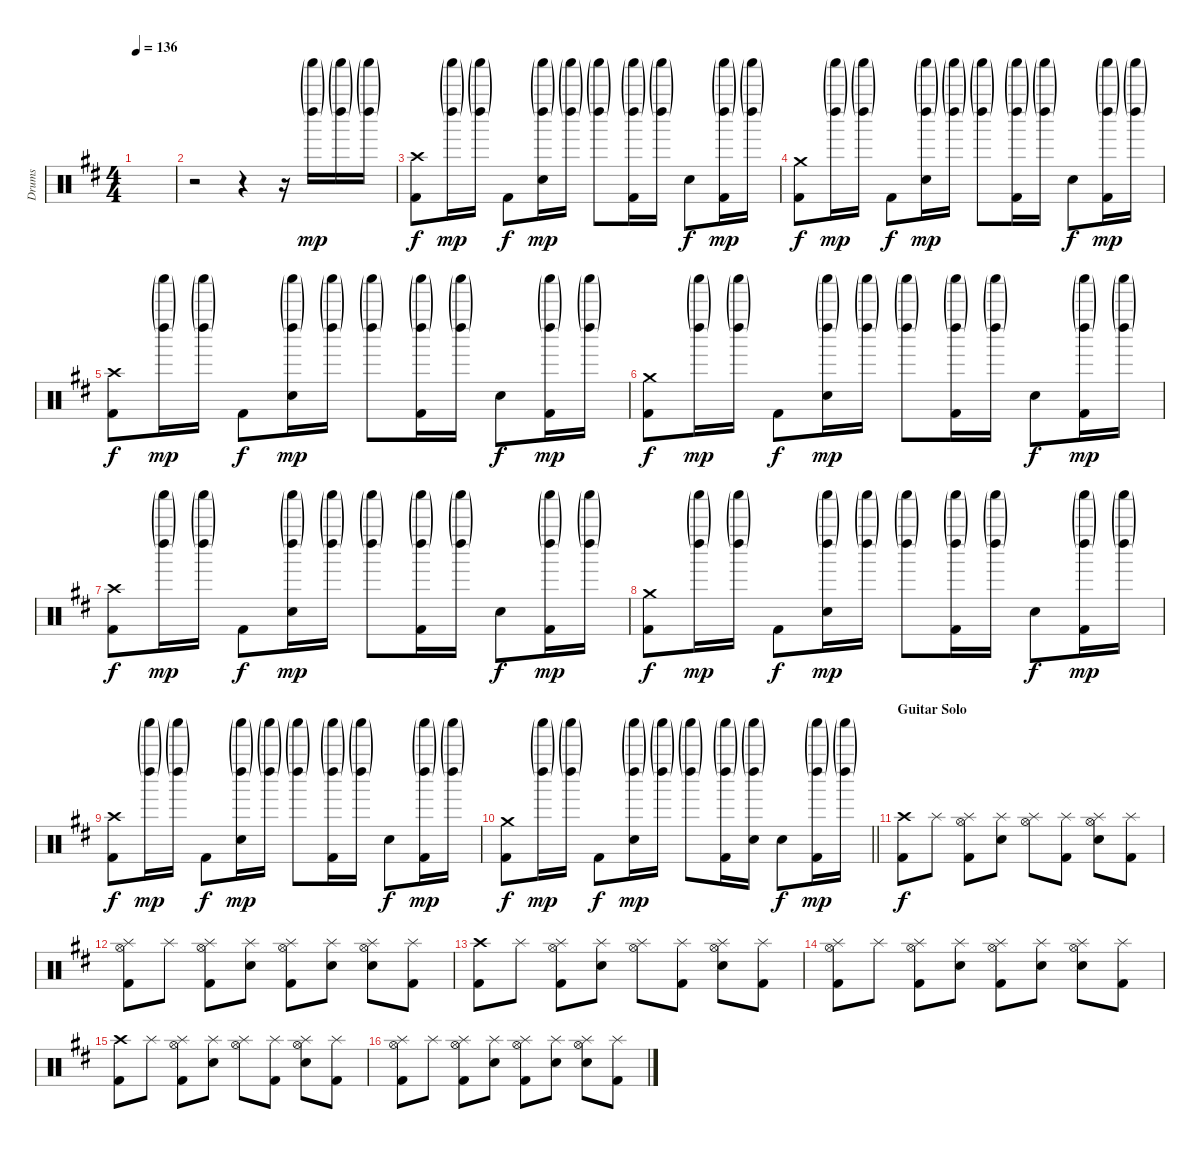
\track ("Drums" "Drums") {instrument percussion}
\staff {score}
\articulation defaults
\ts (4 4)
\tempo 136
\clef neutral
\ks d
|
r.2 r.4 r.16 ("Left Maraca (hit)"{g} "Shaker (hit)"{g}).16{dy mp} ("Left Maraca (hit)"{g} "Shaker (hit)"{g}).16 ("Left Maraca (hit)"{g} "Shaker (hit)"{g}).16 |
("Crash high (hit)" "Kick (hit) 2").8{dy f} ("Left Maraca (hit)"{g} "Shaker (hit)"{g}).16{dy mp} ("Left Maraca (hit)"{g} "Shaker (hit)"{g}).16 "Kick (hit) 2".8{dy f} ("Left Maraca (hit)"{g} "Shaker (hit)"{g} "Snare (hit) 2").16{dy mp} ("Left Maraca (hit)"{g} "Shaker (hit)"{g}).16 ("Left Maraca (hit)"{g} "Shaker (hit)"{g}).8 ("Left Maraca (hit)"{g} "Shaker (hit)"{g} "Kick (hit) 2").16 ("Left Maraca (hit)"{g} "Shaker (hit)"{g}).16 "Snare (hit) 2".8{dy f} ("Left Maraca (hit)"{g} "Shaker (hit)"{g} "Kick (hit) 2").16{dy mp} ("Left Maraca (hit)"{g} "Shaker (hit)"{g}).16 |
("Crash medium (hit)" "Kick (hit) 2").8{dy f} ("Left Maraca (hit)"{g} "Shaker (hit)"{g}).16{dy mp} ("Left Maraca (hit)"{g} "Shaker (hit)"{g}).16 "Kick (hit) 2".8{dy f} ("Left Maraca (hit)"{g} "Shaker (hit)"{g} "Snare (hit) 2").16{dy mp} ("Left Maraca (hit)"{g} "Shaker (hit)"{g}).16 ("Left Maraca (hit)"{g} "Shaker (hit)"{g}).8 ("Left Maraca (hit)"{g} "Shaker (hit)"{g} "Kick (hit) 2").16 ("Left Maraca (hit)"{g} "Shaker (hit)"{g}).16 "Snare (hit) 2".8{dy f} ("Left Maraca (hit)"{g} "Shaker (hit)"{g} "Kick (hit) 2").16{dy mp} ("Left Maraca (hit)"{g} "Shaker (hit)"{g}).16 |
("Crash high (hit)" "Kick (hit) 2").8{dy f} ("Left Maraca (hit)"{g} "Shaker (hit)"{g}).16{dy mp} ("Left Maraca (hit)"{g} "Shaker (hit)"{g}).16 "Kick (hit) 2".8{dy f} ("Left Maraca (hit)"{g} "Shaker (hit)"{g} "Snare (hit) 2").16{dy mp} ("Left Maraca (hit)"{g} "Shaker (hit)"{g}).16 ("Left Maraca (hit)"{g} "Shaker (hit)"{g}).8 ("Left Maraca (hit)"{g} "Shaker (hit)"{g} "Kick (hit) 2").16 ("Left Maraca (hit)"{g} "Shaker (hit)"{g}).16 "Snare (hit) 2".8{dy f} ("Left Maraca (hit)"{g} "Shaker (hit)"{g} "Kick (hit) 2").16{dy mp} ("Left Maraca (hit)"{g} "Shaker (hit)"{g}).16 |
("Crash medium (hit)" "Kick (hit) 2").8{dy f} ("Left Maraca (hit)"{g} "Shaker (hit)"{g}).16{dy mp} ("Left Maraca (hit)"{g} "Shaker (hit)"{g}).16 "Kick (hit) 2".8{dy f} ("Left Maraca (hit)"{g} "Shaker (hit)"{g} "Snare (hit) 2").16{dy mp} ("Left Maraca (hit)"{g} "Shaker (hit)"{g}).16 ("Left Maraca (hit)"{g} "Shaker (hit)"{g}).8 ("Left Maraca (hit)"{g} "Shaker (hit)"{g} "Kick (hit) 2").16 ("Left Maraca (hit)"{g} "Shaker (hit)"{g}).16 "Snare (hit) 2".8{dy f} ("Left Maraca (hit)"{g} "Shaker (hit)"{g} "Kick (hit) 2").16{dy mp} ("Left Maraca (hit)"{g} "Shaker (hit)"{g}).16 |
("Crash high (hit)" "Kick (hit) 2").8{dy f} ("Left Maraca (hit)"{g} "Shaker (hit)"{g}).16{dy mp} ("Left Maraca (hit)"{g} "Shaker (hit)"{g}).16 "Kick (hit) 2".8{dy f} ("Left Maraca (hit)"{g} "Shaker (hit)"{g} "Snare (hit) 2").16{dy mp} ("Left Maraca (hit)"{g} "Shaker (hit)"{g}).16 ("Left Maraca (hit)"{g} "Shaker (hit)"{g}).8 ("Left Maraca (hit)"{g} "Shaker (hit)"{g} "Kick (hit) 2").16 ("Left Maraca (hit)"{g} "Shaker (hit)"{g}).16 "Snare (hit) 2".8{dy f} ("Left Maraca (hit)"{g} "Shaker (hit)"{g} "Kick (hit) 2").16{dy mp} ("Left Maraca (hit)"{g} "Shaker (hit)"{g}).16 |
("Crash medium (hit)" "Kick (hit) 2").8{dy f} ("Left Maraca (hit)"{g} "Shaker (hit)"{g}).16{dy mp} ("Left Maraca (hit)"{g} "Shaker (hit)"{g}).16 "Kick (hit) 2".8{dy f} ("Left Maraca (hit)"{g} "Shaker (hit)"{g} "Snare (hit) 2").16{dy mp} ("Left Maraca (hit)"{g} "Shaker (hit)"{g}).16 ("Left Maraca (hit)"{g} "Shaker (hit)"{g}).8 ("Left Maraca (hit)"{g} "Shaker (hit)"{g} "Kick (hit) 2").16 ("Left Maraca (hit)"{g} "Shaker (hit)"{g}).16 "Snare (hit) 2".8{dy f} ("Left Maraca (hit)"{g} "Shaker (hit)"{g} "Kick (hit) 2").16{dy mp} ("Left Maraca (hit)"{g} "Shaker (hit)"{g}).16 |
("Crash high (hit)" "Kick (hit) 2").8{dy f} ("Left Maraca (hit)"{g} "Shaker (hit)"{g}).16{dy mp} ("Left Maraca (hit)"{g} "Shaker (hit)"{g}).16 "Kick (hit) 2".8{dy f} ("Left Maraca (hit)"{g} "Shaker (hit)"{g} "Snare (hit) 2").16{dy mp} ("Left Maraca (hit)"{g} "Shaker (hit)"{g}).16 ("Left Maraca (hit)"{g} "Shaker (hit)"{g}).8 ("Left Maraca (hit)"{g} "Shaker (hit)"{g} "Kick (hit) 2").16 ("Left Maraca (hit)"{g} "Shaker (hit)"{g}).16 "Snare (hit) 2".8{dy f} ("Left Maraca (hit)"{g} "Shaker (hit)"{g} "Kick (hit) 2").16{dy mp} ("Left Maraca (hit)"{g} "Shaker (hit)"{g}).16 |
\barLineRight lightlight
("Crash medium (hit)" "Kick (hit) 2").8{dy f} ("Left Maraca (hit)"{g} "Shaker (hit)"{g}).16{dy mp} ("Left Maraca (hit)"{g} "Shaker (hit)"{g}).16 "Kick (hit) 2".8{dy f} ("Left Maraca (hit)"{g} "Shaker (hit)"{g} "Snare (hit) 2").16{dy mp} ("Left Maraca (hit)"{g} "Shaker (hit)"{g}).16 ("Left Maraca (hit)"{g} "Shaker (hit)"{g}).8 ("Left Maraca (hit)"{g} "Shaker (hit)"{g} "Kick (hit) 2").16 ("Left Maraca (hit)"{g} "Shaker (hit)"{g} "Snare (hit) 2").16 "Snare (hit) 2".8{dy f} ("Left Maraca (hit)"{g} "Shaker (hit)"{g} "Kick (hit) 2").16{dy mp} ("Left Maraca (hit)"{g} "Shaker (hit)"{g}).16 |
\section ("" "Guitar Solo")
("Crash high (hit)" "Kick (hit) 2").8{dy f} "Splash (hit)".8 ("Hi-Hat (open)" "Splash (hit)" "Kick (hit) 2").8 ("Splash (hit)" "Snare (hit) 2").8 ("Hi-Hat (open)" "Splash (hit)").8 ("Splash (hit)" "Kick (hit) 2").8 ("Hi-Hat (open)" "Splash (hit)" "Snare (hit) 2").8 ("Splash (hit)" "Kick (hit) 2").8 |
("Hi-Hat (open)" "Splash (hit)" "Kick (hit) 2").8 "Splash (hit)".8 ("Hi-Hat (open)" "Splash (hit)" "Kick (hit) 2").8 ("Splash (hit)" "Snare (hit) 2").8 ("Hi-Hat (open)" "Splash (hit)" "Kick (hit) 2").8 ("Splash (hit)" "Snare (hit) 2").8 ("Hi-Hat (open)" "Splash (hit)" "Snare (hit) 2").8 ("Splash (hit)" "Kick (hit) 2").8 |
("Crash high (hit)" "Kick (hit) 2").8 "Splash (hit)".8 ("Hi-Hat (open)" "Splash (hit)" "Kick (hit) 2").8 ("Splash (hit)" "Snare (hit) 2").8 ("Hi-Hat (open)" "Splash (hit)").8 ("Splash (hit)" "Kick (hit) 2").8 ("Hi-Hat (open)" "Splash (hit)" "Snare (hit) 2").8 ("Splash (hit)" "Kick (hit) 2").8 |
("Hi-Hat (open)" "Splash (hit)" "Kick (hit) 2").8 "Splash (hit)".8 ("Hi-Hat (open)" "Splash (hit)" "Kick (hit) 2").8 ("Splash (hit)" "Snare (hit) 2").8 ("Hi-Hat (open)" "Splash (hit)" "Kick (hit) 2").8 ("Splash (hit)" "Snare (hit) 2").8 ("Hi-Hat (open)" "Splash (hit)" "Snare (hit) 2").8 ("Splash (hit)" "Kick (hit) 2").8 |
("Crash high (hit)" "Kick (hit) 2").8 "Splash (hit)".8 ("Hi-Hat (open)" "Splash (hit)" "Kick (hit) 2").8 ("Splash (hit)" "Snare (hit) 2").8 ("Hi-Hat (open)" "Splash (hit)").8 ("Splash (hit)" "Kick (hit) 2").8 ("Hi-Hat (open)" "Splash (hit)" "Snare (hit) 2").8 ("Splash (hit)" "Kick (hit) 2").8 |
("Hi-Hat (open)" "Splash (hit)" "Kick (hit) 2").8 "Splash (hit)".8 ("Hi-Hat (open)" "Splash (hit)" "Kick (hit) 2").8 ("Splash (hit)" "Snare (hit) 2").8 ("Hi-Hat (open)" "Splash (hit)" "Kick (hit) 2").8 ("Splash (hit)" "Snare (hit) 2").8 ("Hi-Hat (open)" "Splash (hit)" "Snare (hit) 2").8 ("Splash (hit)" "Kick (hit) 2").8
